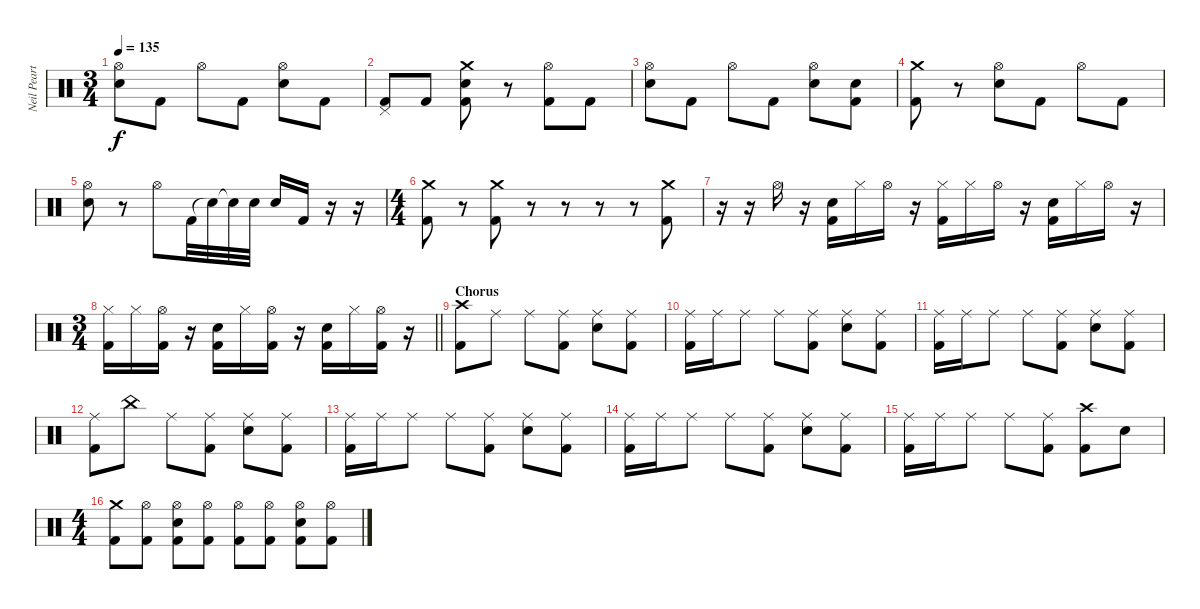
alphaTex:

\track ("Neil Peart" "Neil Peart") {instrument percussion}
\staff {score}
\articulation defaults
\ts (3 4)
\tempo 135
\clef neutral
\ks c
("Hi-Hat (open)" "Snare (hit) 2").8{dy f} "Kick (hit) 2".8 "Hi-Hat (open)".8 "Kick (hit) 2".8 ("Hi-Hat (open)" "Snare (hit) 2").8 "Kick (hit) 2".8 |
("Pedal Hi-Hat (hit)" "Kick (hit) 2").8 "Kick (hit) 2".8 ("Crash medium (hit)" "Snare (hit) 2" "Kick (hit) 2").8 r.8 ("Hi-Hat (open)" "Kick (hit) 2").8 "Kick (hit) 2".8 |
("Hi-Hat (open)" "Snare (hit) 2").8 "Kick (hit) 2".8 "Hi-Hat (open)".8 "Kick (hit) 2".8 ("Hi-Hat (open)" "Snare (hit) 2").8 ("Snare (hit) 2" "Kick (hit) 2").8 |
("Crash medium (hit)" "Kick (hit) 2").8 r.8 ("Hi-Hat (open)" "Snare (hit) 2").8 "Kick (hit) 2".8 "Hi-Hat (open)".8 "Kick (hit) 2".8 |
("Hi-Hat (open)" "Snare (hit) 2").8 r.8 "Hi-Hat (open)".8 "Kick (hit) 2".32 "Snare (hit)"{t}.32 "Snare (hit)"{t}.32 "Snare (hit) 2".32 "Snare (hit) 2".16 "Kick (hit) 2".16 r.16 r.16 |
\ts (4 4)
("Crash medium (hit)" "Kick (hit) 2").8 r.8 ("Crash medium (hit)" "Kick (hit) 2").8 r.8 r.8 r.8 r.8 ("Crash medium (hit)" "Kick (hit) 2").8 |
r.16 r.16 "Hi-Hat (open)".16 r.16 ("Snare (hit) 2" "Kick (hit) 2").16 "Hi-Hat (closed)".16 "Hi-Hat (open)".16 r.16 ("Hi-Hat (closed)" "Kick (hit) 2").16 "Hi-Hat (closed)".16 "Hi-Hat (open)".16 r.16 ("Snare (hit) 2" "Kick (hit) 2").16 "Hi-Hat (closed)".16 "Hi-Hat (open)".16 r.16 |
\ts (3 4)
\barLineRight lightlight
("Hi-Hat (closed)" "Kick (hit) 2").16 "Hi-Hat (closed)".16 ("Hi-Hat (open)" "Kick (hit) 2").16 r.16 ("Snare (hit) 2" "Kick (hit) 2").16 "Hi-Hat (closed)".16 ("Hi-Hat (open)" "Kick (hit) 2").16 r.16 ("Snare (hit) 2" "Kick (hit) 2").16 "Hi-Hat (closed)".16 ("Hi-Hat (open)" "Kick (hit) 2").16 r.16 |
\section ("" "Chorus")
("Crash high (hit)" "Kick (hit) 2").8 "Ride (middle)".8 "Ride (middle)".8 ("Ride (middle)" "Kick (hit) 2").8 ("Ride (middle)" "Snare (hit) 2").8 ("Ride (middle)" "Kick (hit) 2").8 |
("Ride (middle)" "Kick (hit) 2").16 "Ride (middle)".16 "Ride (middle)".8 "Ride (middle)".8 ("Ride (middle)" "Kick (hit) 2").8 ("Ride (middle)" "Snare (hit) 2").8 ("Ride (middle)" "Kick (hit) 2").8 |
("Ride (middle)" "Kick (hit) 2").16 "Ride (middle)".16 "Ride (middle)".8 "Ride (middle)".8 ("Ride (middle)" "Kick (hit) 2").8 ("Ride (middle)" "Snare (hit) 2").8 ("Ride (middle)" "Kick (hit) 2").8 |
("Ride (middle)" "Kick (hit) 2").8 "China (hit)".8 "Ride (middle)".8 ("Ride (middle)" "Kick (hit) 2").8 ("Ride (middle)" "Snare (hit) 2").8 ("Ride (middle)" "Kick (hit) 2").8 |
("Ride (middle)" "Kick (hit) 2").16 "Ride (middle)".16 "Ride (middle)".8 "Ride (middle)".8 ("Ride (middle)" "Kick (hit) 2").8 ("Ride (middle)" "Snare (hit) 2").8 ("Ride (middle)" "Kick (hit) 2").8 |
("Ride (middle)" "Kick (hit) 2").16 "Ride (middle)".16 "Ride (middle)".8 "Ride (middle)".8 ("Ride (middle)" "Kick (hit) 2").8 ("Ride (middle)" "Snare (hit) 2").8 ("Ride (middle)" "Kick (hit) 2").8 |
("Ride (middle)" "Kick (hit) 2").16 "Ride (middle)".16 "Ride (middle)".8 "Ride (middle)".8 ("Ride (middle)" "Kick (hit) 2").8 ("Crash high (hit)" "Kick (hit) 2").8 "Snare (hit) 2".8 |
\ts (4 4)
("Crash medium (hit)" "Kick (hit) 2").8 ("Hi-Hat (open)" "Kick (hit) 2").8 ("Hi-Hat (open)" "Snare (hit) 2" "Kick (hit) 2").8 ("Hi-Hat (open)" "Kick (hit) 2").8 ("Hi-Hat (open)" "Kick (hit) 2").8 ("Hi-Hat (open)" "Kick (hit) 2").8 ("Hi-Hat (open)" "Snare (hit) 2" "Kick (hit) 2").8 ("Hi-Hat (open)" "Kick (hit) 2").8
